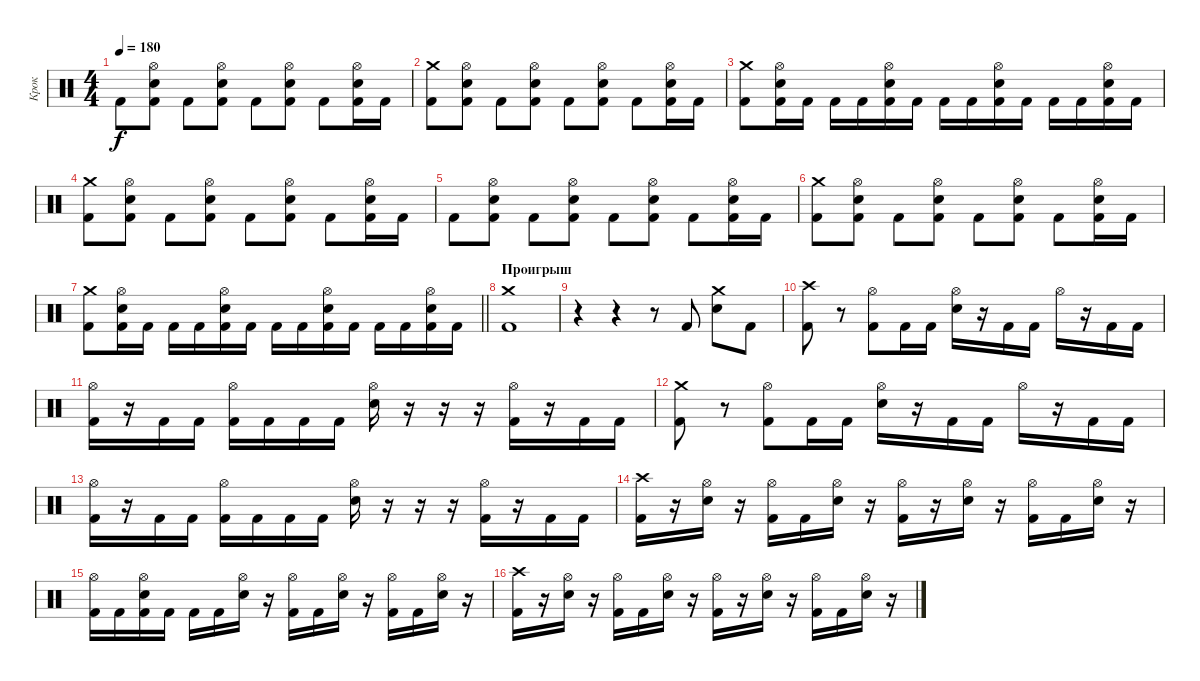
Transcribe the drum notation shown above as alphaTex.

\track ("Крок" "Крок") {instrument percussion}
\staff {score}
\articulation defaults
\ts (4 4)
\tempo 180
\clef neutral
\ks c "Kick (hit) 2".8{dy f}
("Kick (hit) 2" "Electric Snare (hit)" "Hi-Hat (open)").8 "Kick (hit) 2".8 ("Kick (hit) 2" "Electric Snare (hit)" "Hi-Hat (open)").8 "Kick (hit) 2".8 ("Kick (hit) 2" "Electric Snare (hit)" "Hi-Hat (open)").8 "Kick (hit) 2".8 ("Kick (hit) 2" "Electric Snare (hit)" "Hi-Hat (open)").16 "Kick (hit) 2".16 |
("Kick (hit) 2" "Crash medium (hit)").8 ("Kick (hit) 2" "Electric Snare (hit)" "Hi-Hat (open)").8 "Kick (hit) 2".8 ("Kick (hit) 2" "Electric Snare (hit)" "Hi-Hat (open)").8 "Kick (hit) 2".8 ("Kick (hit) 2" "Electric Snare (hit)" "Hi-Hat (open)").8 "Kick (hit) 2".8 ("Kick (hit) 2" "Electric Snare (hit)" "Hi-Hat (open)").16 "Kick (hit) 2".16 |
("Kick (hit) 2" "Crash medium (hit)").8 ("Kick (hit) 2" "Electric Snare (hit)" "Hi-Hat (open)").16 "Kick (hit) 2".16 "Kick (hit) 2".16 "Kick (hit) 2".16 ("Kick (hit) 2" "Electric Snare (hit)" "Hi-Hat (open)").16 "Kick (hit) 2".16 "Kick (hit) 2".16 "Kick (hit) 2".16 ("Kick (hit) 2" "Electric Snare (hit)" "Hi-Hat (open)").16 "Kick (hit) 2".16 "Kick (hit) 2".16 "Kick (hit) 2".16 ("Kick (hit) 2" "Electric Snare (hit)" "Hi-Hat (open)").16 "Kick (hit) 2".16 |
("Kick (hit) 2" "Crash medium (hit)").8 ("Kick (hit) 2" "Electric Snare (hit)" "Hi-Hat (open)").8 "Kick (hit) 2".8 ("Kick (hit) 2" "Electric Snare (hit)" "Hi-Hat (open)").8 "Kick (hit) 2".8 ("Kick (hit) 2" "Electric Snare (hit)" "Hi-Hat (open)").8 "Kick (hit) 2".8 ("Kick (hit) 2" "Electric Snare (hit)" "Hi-Hat (open)").16 "Kick (hit) 2".16 |
"Kick (hit) 2".8 ("Kick (hit) 2" "Electric Snare (hit)" "Hi-Hat (open)").8 "Kick (hit) 2".8 ("Kick (hit) 2" "Electric Snare (hit)" "Hi-Hat (open)").8 "Kick (hit) 2".8 ("Kick (hit) 2" "Electric Snare (hit)" "Hi-Hat (open)").8 "Kick (hit) 2".8 ("Kick (hit) 2" "Electric Snare (hit)" "Hi-Hat (open)").16 "Kick (hit) 2".16 |
("Kick (hit) 2" "Crash medium (hit)").8 ("Kick (hit) 2" "Electric Snare (hit)" "Hi-Hat (open)").8 "Kick (hit) 2".8 ("Kick (hit) 2" "Electric Snare (hit)" "Hi-Hat (open)").8 "Kick (hit) 2".8 ("Kick (hit) 2" "Electric Snare (hit)" "Hi-Hat (open)").8 "Kick (hit) 2".8 ("Kick (hit) 2" "Electric Snare (hit)" "Hi-Hat (open)").16 "Kick (hit) 2".16 |
\barLineRight lightlight
("Kick (hit) 2" "Crash medium (hit)").8 ("Kick (hit) 2" "Electric Snare (hit)" "Hi-Hat (open)").16 "Kick (hit) 2".16 "Kick (hit) 2".16 "Kick (hit) 2".16 ("Kick (hit) 2" "Electric Snare (hit)" "Hi-Hat (open)").16 "Kick (hit) 2".16 "Kick (hit) 2".16 "Kick (hit) 2".16 ("Kick (hit) 2" "Electric Snare (hit)" "Hi-Hat (open)").16 "Kick (hit) 2".16 "Kick (hit) 2".16 "Kick (hit) 2".16 ("Kick (hit) 2" "Electric Snare (hit)" "Hi-Hat (open)").16 "Kick (hit) 2".16 |
\section ("" "Проигрыш")
("Crash medium (hit)" "Kick (hit) 2").1 |
r.4 r.4 r.8 "Kick (hit) 2".8 ("Crash medium (hit)" "Electric Snare (hit)").8 "Kick (hit) 2".8 |
("Crash high (hit)" "Kick (hit) 2").8 r.8 ("Kick (hit) 2" "Hi-Hat (open)").8 "Kick (hit) 2".16 "Kick (hit) 2".16 ("Electric Snare (hit)" "Hi-Hat (open)").16 r.16 "Kick (hit) 2".16 "Kick (hit) 2".16 "Hi-Hat (open)".16 r.16 "Kick (hit) 2".16 "Kick (hit) 2".16 |
("Kick (hit) 2" "Hi-Hat (open)").16 r.16 "Kick (hit) 2".16 "Kick (hit) 2".16 ("Kick (hit) 2" "Hi-Hat (open)").16 "Kick (hit) 2".16 "Kick (hit) 2".16 "Kick (hit) 2".16 ("Electric Snare (hit)" "Hi-Hat (open)").16 r.16 r.16 r.16 ("Kick (hit) 2" "Hi-Hat (open)").16 r.16 "Kick (hit) 2".16 "Kick (hit) 2".16 |
("Kick (hit) 2" "Crash medium (hit)").8 r.8 ("Kick (hit) 2" "Hi-Hat (open)").8 "Kick (hit) 2".16 "Kick (hit) 2".16 ("Electric Snare (hit)" "Hi-Hat (open)").16 r.16 "Kick (hit) 2".16 "Kick (hit) 2".16 "Hi-Hat (open)".16 r.16 "Kick (hit) 2".16 "Kick (hit) 2".16 |
("Kick (hit) 2" "Hi-Hat (open)").16 r.16 "Kick (hit) 2".16 "Kick (hit) 2".16 ("Kick (hit) 2" "Hi-Hat (open)").16 "Kick (hit) 2".16 "Kick (hit) 2".16 "Kick (hit) 2".16 ("Electric Snare (hit)" "Hi-Hat (open)").16 r.16 r.16 r.16 ("Kick (hit) 2" "Hi-Hat (open)").16 r.16 "Kick (hit) 2".16 "Kick (hit) 2".16 |
("Kick (hit) 2" "Crash high (hit)").16 r.16 ("Electric Snare (hit)" "Hi-Hat (open)").16 r.16 ("Kick (hit) 2" "Hi-Hat (open)").16 "Kick (hit) 2".16 ("Electric Snare (hit)" "Hi-Hat (open)").16 r.16 ("Kick (hit) 2" "Hi-Hat (open)").16 r.16 ("Electric Snare (hit)" "Hi-Hat (open)").16 r.16 ("Kick (hit) 2" "Hi-Hat (open)").16 "Kick (hit) 2".16 ("Electric Snare (hit)" "Hi-Hat (open)").16 r.16 |
("Kick (hit) 2" "Hi-Hat (open)").16 "Kick (hit) 2".16 ("Kick (hit) 2" "Electric Snare (hit)" "Hi-Hat (open)").16 "Kick (hit) 2".16 "Kick (hit) 2".16 "Kick (hit) 2".16 ("Electric Snare (hit)" "Hi-Hat (open)").16 r.16 ("Kick (hit) 2" "Hi-Hat (open)").16 "Kick (hit) 2".16 ("Electric Snare (hit)" "Hi-Hat (open)").16 r.16 ("Kick (hit) 2" "Hi-Hat (open)").16 "Kick (hit) 2".16 ("Electric Snare (hit)" "Hi-Hat (open)").16 r.16 |
("Kick (hit) 2" "Crash high (hit)").16 r.16 ("Electric Snare (hit)" "Hi-Hat (open)").16 r.16 ("Kick (hit) 2" "Hi-Hat (open)").16 "Kick (hit) 2".16 ("Electric Snare (hit)" "Hi-Hat (open)").16 r.16 ("Kick (hit) 2" "Hi-Hat (open)").16 r.16 ("Electric Snare (hit)" "Hi-Hat (open)").16 r.16 ("Kick (hit) 2" "Hi-Hat (open)").16 "Kick (hit) 2".16 ("Electric Snare (hit)" "Hi-Hat (open)").16 r.16
